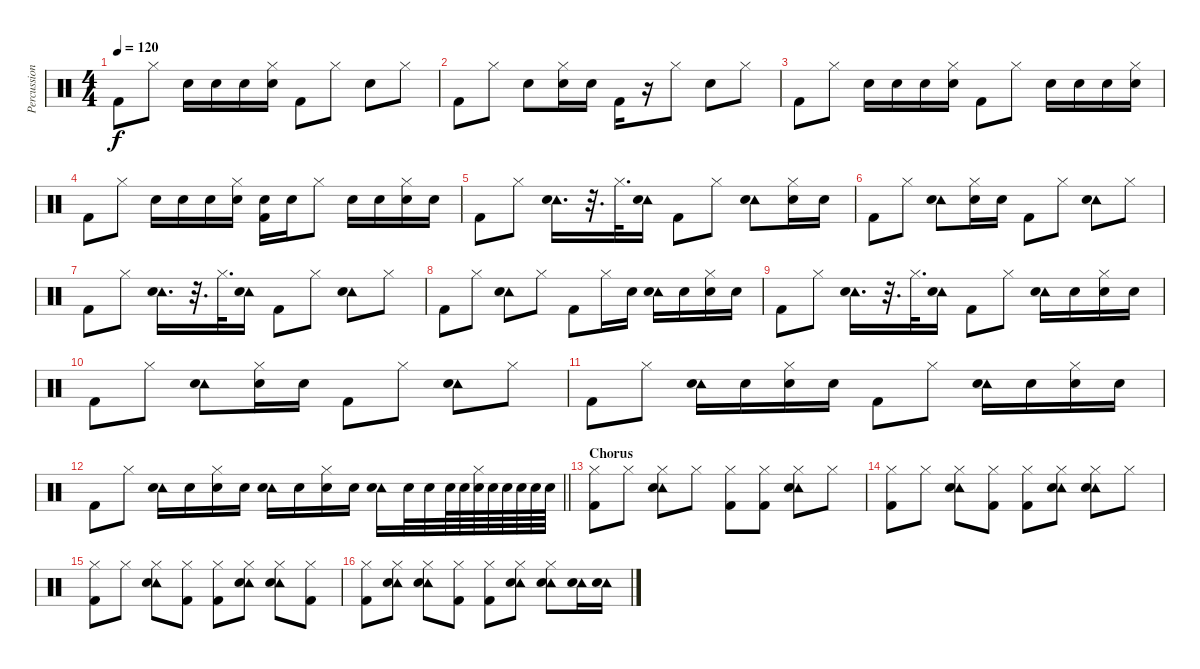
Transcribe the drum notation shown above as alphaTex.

\track ("Percussion" "Percussion") {instrument percussion}
\staff {score}
\articulation defaults
\ts (4 4)
\tempo 120
\clef neutral
\ks c "Kick (hit) 2".8{dy f} "Hi-Hat (closed)".8 "Snare (hit) 2".16 "Snare (hit) 2".16 "Snare (hit) 2".16
("Hi-Hat (closed)" "Snare (hit) 2").16 "Kick (hit) 2".8 "Hi-Hat (closed)".8 "Snare (hit) 2".8 "Hi-Hat (closed)".8 |
"Kick (hit) 2".8 "Hi-Hat (closed)".8 "Snare (hit) 2".8 ("Hi-Hat (closed)" "Snare (hit) 2").16 "Snare (hit) 2".16 "Kick (hit) 2".16 r.16 "Hi-Hat (closed)".8 "Snare (hit) 2".8 "Hi-Hat (closed)".8 |
"Kick (hit) 2".8 "Hi-Hat (closed)".8 "Snare (hit) 2".16 "Snare (hit) 2".16 "Snare (hit) 2".16 ("Hi-Hat (closed)" "Snare (hit) 2").16 "Kick (hit) 2".8 "Hi-Hat (closed)".8 "Snare (hit) 2".16 "Snare (hit) 2".16 "Snare (hit) 2".16 ("Hi-Hat (closed)" "Snare (hit) 2").16 |
"Kick (hit) 2".8 "Hi-Hat (closed)".8 "Snare (hit) 2".16 "Snare (hit) 2".16 "Snare (hit) 2".16 ("Hi-Hat (closed)" "Snare (hit) 2").16 ("Snare (hit) 2" "Kick (hit) 2").16 "Snare (hit) 2".16 "Hi-Hat (closed)".8 "Snare (hit) 2".16 "Snare (hit) 2".16 ("Hi-Hat (closed)" "Snare (hit) 2").16 "Snare (hit) 2".16 |
"Kick (hit) 2".8 "Hi-Hat (closed)".8 ("Tambourine (hit)" "Snare (hit) 2").16{d} r.32{d} "Hi-Hat (closed)".32{d} ("Tambourine (hit)" "Snare (hit) 2").16 "Kick (hit) 2".8 "Hi-Hat (closed)".8 ("Tambourine (hit)" "Snare (hit) 2").8 ("Hi-Hat (closed)" "Snare (hit) 2").16 "Snare (hit) 2".16 |
"Kick (hit) 2".8 "Hi-Hat (closed)".8 ("Tambourine (hit)" "Snare (hit) 2").8 ("Hi-Hat (closed)" "Snare (hit) 2").16 "Snare (hit) 2".16 "Kick (hit) 2".8 "Hi-Hat (closed)".8 ("Tambourine (hit)" "Snare (hit) 2").8 "Hi-Hat (closed)".8 |
"Kick (hit) 2".8 "Hi-Hat (closed)".8 ("Tambourine (hit)" "Snare (hit) 2").16{d} r.32{d} "Hi-Hat (closed)".32{d} ("Tambourine (hit)" "Snare (hit) 2").16 "Kick (hit) 2".8 "Hi-Hat (closed)".8 ("Tambourine (hit)" "Snare (hit) 2").8 "Hi-Hat (closed)".8 |
"Kick (hit) 2".8 "Hi-Hat (closed)".8 ("Tambourine (hit)" "Snare (hit) 2").8 "Hi-Hat (closed)".8 "Kick (hit) 2".8 "Hi-Hat (closed)".16 "Snare (hit) 2".16 ("Tambourine (hit)" "Snare (hit) 2").16 "Snare (hit) 2".16 ("Hi-Hat (closed)" "Snare (hit) 2").16 "Snare (hit) 2".16 |
"Kick (hit) 2".8 "Hi-Hat (closed)".8 ("Tambourine (hit)" "Snare (hit) 2").16{d} r.32{d} "Hi-Hat (closed)".32{d} ("Tambourine (hit)" "Snare (hit) 2").16 "Kick (hit) 2".8 "Hi-Hat (closed)".8 ("Tambourine (hit)" "Snare (hit) 2").16 "Snare (hit) 2".16 ("Hi-Hat (closed)" "Snare (hit) 2").16 "Snare (hit) 2".16 |
"Kick (hit) 2".8 "Hi-Hat (closed)".8 ("Tambourine (hit)" "Snare (hit) 2").8 ("Hi-Hat (closed)" "Snare (hit) 2").16 "Snare (hit) 2".16 "Kick (hit) 2".8 "Hi-Hat (closed)".8 ("Tambourine (hit)" "Snare (hit) 2").8 "Hi-Hat (closed)".8 |
"Kick (hit) 2".8 "Hi-Hat (closed)".8 ("Tambourine (hit)" "Snare (hit) 2").16 "Snare (hit) 2".16 ("Hi-Hat (closed)" "Snare (hit) 2").16 "Snare (hit) 2".16 "Kick (hit) 2".8 "Hi-Hat (closed)".8 ("Tambourine (hit)" "Snare (hit) 2").16 "Snare (hit) 2".16 ("Hi-Hat (closed)" "Snare (hit) 2").16 "Snare (hit) 2".16 |
\barLineRight lightlight "Kick (hit) 2".8 "Hi-Hat (closed)".8
("Tambourine (hit)" "Snare (hit) 2").16 "Snare (hit) 2".16 ("Hi-Hat (closed)" "Snare (hit) 2").16 "Snare (hit) 2".16 ("Tambourine (hit)" "Snare (hit) 2").16 "Snare (hit) 2".16 ("Hi-Hat (closed)" "Snare (hit) 2").16 "Snare (hit) 2".16 ("Tambourine (hit)" "Snare (hit) 2").16 "Snare (hit) 2".32 "Snare (hit) 2".32 "Snare (hit) 2".64 "Snare (hit) 2".64 ("Hi-Hat (closed)" "Snare (hit) 2").64 "Snare (hit) 2".64 "Snare (hit) 2".64 "Snare (hit) 2".64 "Snare (hit) 2".64 "Snare (hit) 2".64 |
\section ("" "Chorus")
("Hi-Hat (closed)" "Kick (hit) 2").8 "Hi-Hat (closed)".8 ("Hi-Hat (closed)" "Tambourine (hit)" "Snare (hit) 2").8 "Hi-Hat (closed)".8 ("Hi-Hat (closed)" "Kick (hit) 2").8 ("Hi-Hat (closed)" "Kick (hit) 2").8 ("Hi-Hat (closed)" "Tambourine (hit)" "Snare (hit) 2").8 "Hi-Hat (closed)".8 |
("Hi-Hat (closed)" "Kick (hit) 2").8 "Hi-Hat (closed)".8 ("Hi-Hat (closed)" "Tambourine (hit)" "Snare (hit) 2").8 ("Hi-Hat (closed)" "Kick (hit) 2").8 ("Hi-Hat (closed)" "Kick (hit) 2").8 ("Hi-Hat (closed)" "Tambourine (hit)" "Snare (hit) 2").8 ("Hi-Hat (closed)" "Tambourine (hit)" "Snare (hit) 2").8 "Hi-Hat (closed)".8 |
("Hi-Hat (closed)" "Kick (hit) 2").8 "Hi-Hat (closed)".8 ("Hi-Hat (closed)" "Tambourine (hit)" "Snare (hit) 2").8 ("Hi-Hat (closed)" "Kick (hit) 2").8 ("Hi-Hat (closed)" "Kick (hit) 2").8 ("Hi-Hat (closed)" "Tambourine (hit)" "Snare (hit) 2").8 ("Hi-Hat (closed)" "Tambourine (hit)" "Snare (hit) 2").8 ("Hi-Hat (closed)" "Kick (hit) 2").8 |
("Hi-Hat (closed)" "Kick (hit) 2").8 ("Hi-Hat (closed)" "Tambourine (hit)" "Snare (hit) 2").8 ("Hi-Hat (closed)" "Tambourine (hit)" "Snare (hit) 2").8 ("Hi-Hat (closed)" "Kick (hit) 2").8 ("Hi-Hat (closed)" "Kick (hit) 2").8 ("Hi-Hat (closed)" "Tambourine (hit)" "Snare (hit) 2").8 ("Hi-Hat (closed)" "Tambourine (hit)" "Snare (hit) 2").8 ("Tambourine (hit)" "Snare (hit) 2").16 ("Tambourine (hit)" "Snare (hit) 2").16
